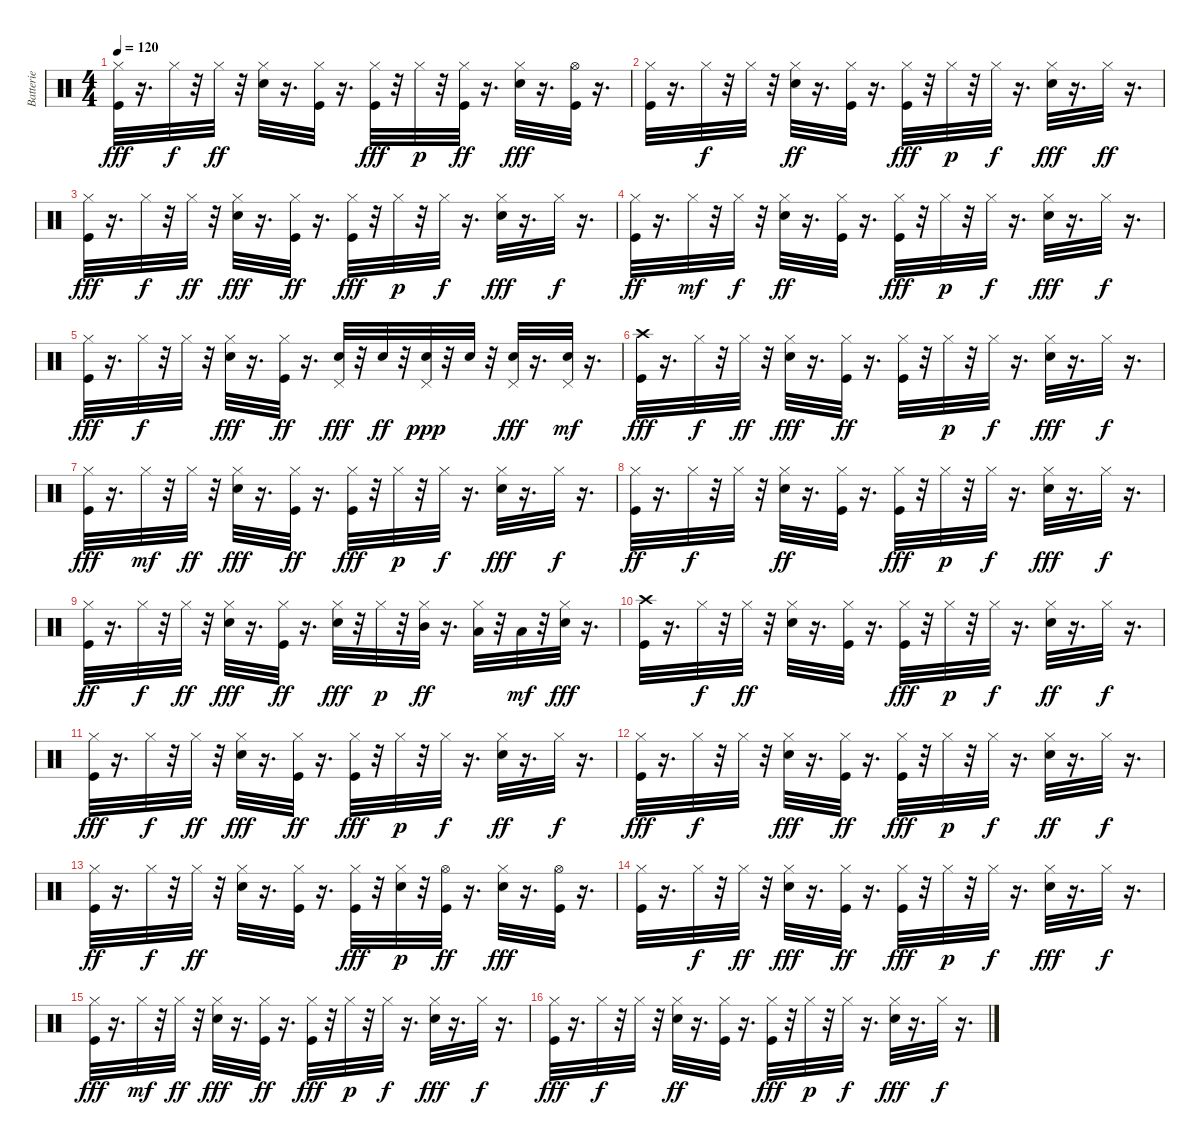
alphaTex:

\track ("Batterie" "Batterie") {instrument percussion}
\staff {score}
\articulation defaults
\ts (4 4)
\tempo 120
\clef neutral
\ks c
("Hi-Hat (closed)" "Kick (hit)").32{dy fff} r.16{d} "Hi-Hat (closed)".32{dy f} r.32 "Hi-Hat (closed)".32{dy ff} r.32 ("Electric Snare (hit)" "Hi-Hat (closed)").32 r.16{d} ("Kick (hit)" "Hi-Hat (closed)").32 r.16{d} ("Kick (hit)" "Hi-Hat (closed)").32{dy fff} r.32 "Hi-Hat (closed)".32{dy p} r.32 ("Kick (hit)" "Hi-Hat (closed)").32{dy ff} r.16{d} ("Electric Snare (hit)" "Hi-Hat (closed)").32{dy fff} r.16{d} ("Hi-Hat (open)" "Kick (hit)").32 r.16{d} |
("Hi-Hat (closed)" "Kick (hit)").32 r.16{d} "Hi-Hat (closed)".32{dy f} r.32 "Hi-Hat (closed)".32 r.32 ("Electric Snare (hit)" "Hi-Hat (closed)").32{dy ff} r.16{d} ("Hi-Hat (closed)" "Kick (hit)").32 r.16{d} ("Hi-Hat (closed)" "Kick (hit)").32{dy fff} r.32 "Hi-Hat (closed)".32{dy p} r.32 "Hi-Hat (closed)".32{dy f} r.16{d} ("Hi-Hat (closed)" "Electric Snare (hit)").32{dy fff} r.16{d} "Hi-Hat (closed)".32{dy ff} r.16{d} |
("Hi-Hat (closed)" "Kick (hit)").32{dy fff} r.16{d} "Hi-Hat (closed)".32{dy f} r.32 "Hi-Hat (closed)".32{dy ff} r.32 ("Hi-Hat (closed)" "Electric Snare (hit)").32{dy fff} r.16{d} ("Hi-Hat (closed)" "Kick (hit)").32{dy ff} r.16{d} ("Hi-Hat (closed)" "Kick (hit)").32{dy fff} r.32 "Hi-Hat (closed)".32{dy p} r.32 "Hi-Hat (closed)".32{dy f} r.16{d} ("Electric Snare (hit)" "Hi-Hat (closed)").32{dy fff} r.16{d} "Hi-Hat (closed)".32{dy f} r.16{d} |
("Kick (hit)" "Hi-Hat (closed)").32{dy ff} r.16{d} "Hi-Hat (closed)".32{dy mf} r.32 "Hi-Hat (closed)".32{dy f} r.32 ("Electric Snare (hit)" "Hi-Hat (closed)").32{dy ff} r.16{d} ("Hi-Hat (closed)" "Kick (hit)").32 r.16{d} ("Kick (hit)" "Hi-Hat (closed)").32{dy fff} r.32 "Hi-Hat (closed)".32{dy p} r.32 "Hi-Hat (closed)".32{dy f} r.16{d} ("Electric Snare (hit)" "Hi-Hat (closed)").32{dy fff} r.16{d} "Hi-Hat (closed)".32{dy f} r.16{d} |
("Hi-Hat (closed)" "Kick (hit)").32{dy fff} r.16{d} "Hi-Hat (closed)".32{dy f} r.32 "Hi-Hat (closed)".32 r.32 ("Hi-Hat (closed)" "Electric Snare (hit)").32{dy fff} r.16{d} ("Kick (hit)" "Hi-Hat (closed)").32{dy ff} r.16{d} ("Electric Snare (hit)" "Pedal Hi-Hat (hit)").32{dy fff} r.32 "Electric Snare (hit)".32{dy ff} r.32 ("Electric Snare (hit)" "Pedal Hi-Hat (hit)").32{dy ppp} r.32 "Electric Snare (hit)".32 r.32 ("Pedal Hi-Hat (hit)" "Electric Snare (hit)").32{dy fff} r.16{d} ("Electric Snare (hit)" "Pedal Hi-Hat (hit)").32{dy mf} r.16{d} |
("Crash high (hit)" "Kick (hit)").32{dy fff} r.16{d} "Hi-Hat (closed)".32{dy f} r.32 "Hi-Hat (closed)".32{dy ff} r.32 ("Hi-Hat (closed)" "Electric Snare (hit)").32{dy fff} r.16{d} ("Hi-Hat (closed)" "Kick (hit)").32{dy ff} r.16{d} ("Kick (hit)" "Hi-Hat (closed)").32 r.32 "Hi-Hat (closed)".32{dy p} r.32 "Hi-Hat (closed)".32{dy f} r.16{d} ("Hi-Hat (closed)" "Electric Snare (hit)").32{dy fff} r.16{d} "Hi-Hat (closed)".32{dy f} r.16{d} |
("Hi-Hat (closed)" "Kick (hit)").32{dy fff} r.16{d} "Hi-Hat (closed)".32{dy mf} r.32 "Hi-Hat (closed)".32{dy ff} r.32 ("Hi-Hat (closed)" "Electric Snare (hit)").32{dy fff} r.16{d} ("Hi-Hat (closed)" "Kick (hit)").32{dy ff} r.16{d} ("Kick (hit)" "Hi-Hat (closed)").32{dy fff} r.32 "Hi-Hat (closed)".32{dy p} r.32 "Hi-Hat (closed)".32{dy f} r.16{d} ("Hi-Hat (closed)" "Electric Snare (hit)").32{dy fff} r.16{d} "Hi-Hat (closed)".32{dy f} r.16{d} |
("Kick (hit)" "Hi-Hat (closed)").32{dy ff} r.16{d} "Hi-Hat (closed)".32{dy f} r.32 "Hi-Hat (closed)".32 r.32 ("Electric Snare (hit)" "Hi-Hat (closed)").32{dy ff} r.16{d} ("Kick (hit)" "Hi-Hat (closed)").32 r.16{d} ("Kick (hit)" "Hi-Hat (closed)").32{dy fff} r.32 "Hi-Hat (closed)".32{dy p} r.32 "Hi-Hat (closed)".32{dy f} r.16{d} ("Hi-Hat (closed)" "Electric Snare (hit)").32{dy fff} r.16{d} "Hi-Hat (closed)".32{dy f} r.16{d} |
("Kick (hit)" "Hi-Hat (closed)").32{dy ff} r.16{d} "Hi-Hat (closed)".32{dy f} r.32 "Hi-Hat (closed)".32{dy ff} r.32 ("Hi-Hat (closed)" "Electric Snare (hit)").32{dy fff} r.16{d} ("Hi-Hat (closed)" "Kick (hit)").32{dy ff} r.16{d} ("Electric Snare (hit)" "Hi-Hat (closed)").32{dy fff} r.32 "Hi-Hat (closed)".32{dy p} r.32 ("Mid Tom (hit)" "Hi-Hat (closed)").32{dy ff} r.16{d} ("Hi-Hat (closed)" "Low Tom (hit)").32 r.32 "Low Tom (hit)".32{dy mf} r.32 ("Hi-Hat (closed)" "Electric Snare (hit)").32{dy fff} r.16{d} |
("Crash high (hit)" "Kick (hit)").32 r.16{d} "Hi-Hat (closed)".32{dy f} r.32 "Hi-Hat (closed)".32{dy ff} r.32 ("Electric Snare (hit)" "Hi-Hat (closed)").32 r.16{d} ("Hi-Hat (closed)" "Kick (hit)").32 r.16{d} ("Hi-Hat (closed)" "Kick (hit)").32{dy fff} r.32 "Hi-Hat (closed)".32{dy p} r.32 "Hi-Hat (closed)".32{dy f} r.16{d} ("Electric Snare (hit)" "Hi-Hat (closed)").32{dy ff} r.16{d} "Hi-Hat (closed)".32{dy f} r.16{d} |
("Hi-Hat (closed)" "Kick (hit)").32{dy fff} r.16{d} "Hi-Hat (closed)".32{dy f} r.32 "Hi-Hat (closed)".32{dy ff} r.32 ("Hi-Hat (closed)" "Electric Snare (hit)").32{dy fff} r.16{d} ("Kick (hit)" "Hi-Hat (closed)").32{dy ff} r.16{d} ("Hi-Hat (closed)" "Kick (hit)").32{dy fff} r.32 "Hi-Hat (closed)".32{dy p} r.32 "Hi-Hat (closed)".32{dy f} r.16{d} ("Electric Snare (hit)" "Hi-Hat (closed)").32{dy ff} r.16{d} "Hi-Hat (closed)".32{dy f} r.16{d} |
("Hi-Hat (closed)" "Kick (hit)").32{dy fff} r.16{d} "Hi-Hat (closed)".32{dy f} r.32 "Hi-Hat (closed)".32 r.32 ("Hi-Hat (closed)" "Electric Snare (hit)").32{dy fff} r.16{d} ("Kick (hit)" "Hi-Hat (closed)").32{dy ff} r.16{d} ("Kick (hit)" "Hi-Hat (closed)").32{dy fff} r.32 "Hi-Hat (closed)".32{dy p} r.32 "Hi-Hat (closed)".32{dy f} r.16{d} ("Electric Snare (hit)" "Hi-Hat (closed)").32{dy ff} r.16{d} "Hi-Hat (closed)".32{dy f} r.16{d} |
("Kick (hit)" "Hi-Hat (closed)").32{dy ff} r.16{d} "Hi-Hat (closed)".32{dy f} r.32 "Hi-Hat (closed)".32{dy ff} r.32 ("Electric Snare (hit)" "Hi-Hat (closed)").32 r.16{d} ("Kick (hit)" "Hi-Hat (closed)").32 r.16{d} ("Kick (hit)" "Hi-Hat (closed)").32{dy fff} r.32 ("Electric Snare (hit)" "Hi-Hat (closed)").32{dy p} r.32 ("Hi-Hat (open)" "Kick (hit)").32{dy ff} r.16{d} ("Electric Snare (hit)" "Hi-Hat (closed)").32{dy fff} r.16{d} ("Hi-Hat (open)" "Kick (hit)").32 r.16{d} |
("Hi-Hat (closed)" "Kick (hit)").32 r.16{d} "Hi-Hat (closed)".32{dy f} r.32 "Hi-Hat (closed)".32{dy ff} r.32 ("Hi-Hat (closed)" "Electric Snare (hit)").32{dy fff} r.16{d} ("Hi-Hat (closed)" "Kick (hit)").32{dy ff} r.16{d} ("Hi-Hat (closed)" "Kick (hit)").32{dy fff} r.32 "Hi-Hat (closed)".32{dy p} r.32 "Hi-Hat (closed)".32{dy f} r.16{d} ("Hi-Hat (closed)" "Electric Snare (hit)").32{dy fff} r.16{d} "Hi-Hat (closed)".32{dy f} r.16{d} |
("Hi-Hat (closed)" "Kick (hit)").32{dy fff} r.16{d} "Hi-Hat (closed)".32{dy mf} r.32 "Hi-Hat (closed)".32{dy ff} r.32 ("Hi-Hat (closed)" "Electric Snare (hit)").32{dy fff} r.16{d} ("Hi-Hat (closed)" "Kick (hit)").32{dy ff} r.16{d} ("Hi-Hat (closed)" "Kick (hit)").32{dy fff} r.32 "Hi-Hat (closed)".32{dy p} r.32 "Hi-Hat (closed)".32{dy f} r.16{d} ("Hi-Hat (closed)" "Electric Snare (hit)").32{dy fff} r.16{d} "Hi-Hat (closed)".32{dy f} r.16{d} |
("Hi-Hat (closed)" "Kick (hit)").32{dy fff} r.16{d} "Hi-Hat (closed)".32{dy f} r.32 "Hi-Hat (closed)".32 r.32 ("Electric Snare (hit)" "Hi-Hat (closed)").32{dy ff} r.16{d} ("Hi-Hat (closed)" "Kick (hit)").32 r.16{d} ("Hi-Hat (closed)" "Kick (hit)").32{dy fff} r.32 "Hi-Hat (closed)".32{dy p} r.32 "Hi-Hat (closed)".32{dy f} r.16{d} ("Hi-Hat (closed)" "Electric Snare (hit)").32{dy fff} r.16{d} "Hi-Hat (closed)".32{dy f} r.16{d}
